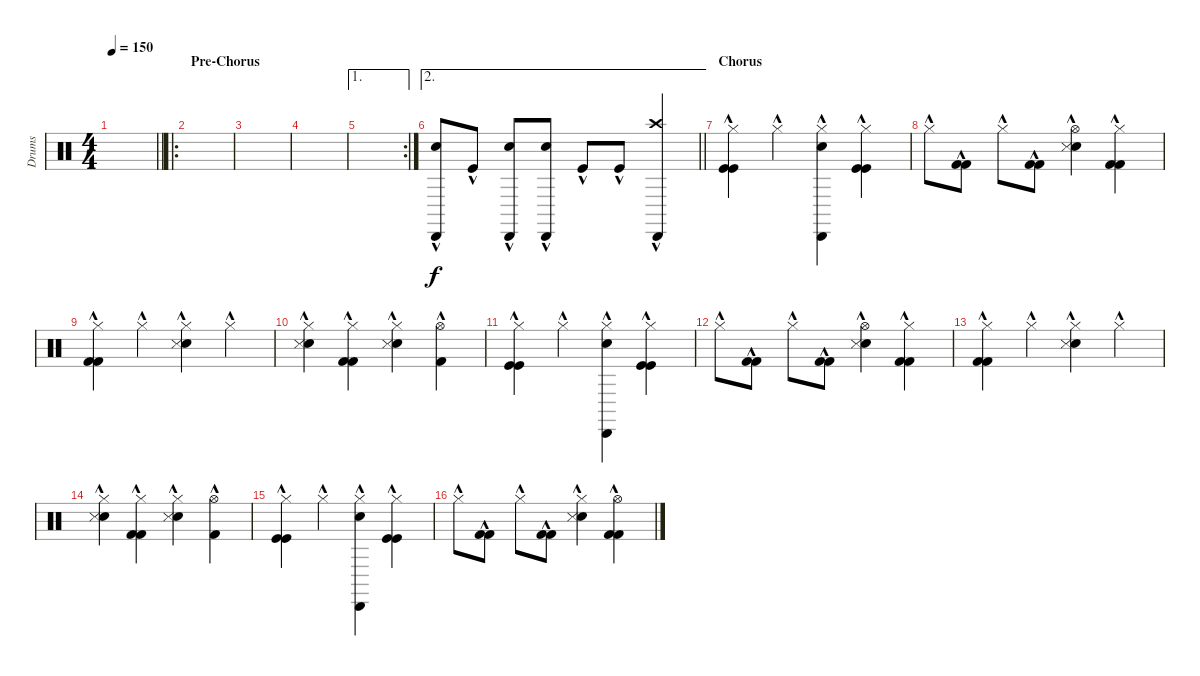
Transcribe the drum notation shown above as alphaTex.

\track ("Drums" "Drums") {instrument percussion}
\staff {score}
\articulation defaults
\ts (4 4)
\tempo 150
\clef neutral
\barLineRight lightlight
\ks c
|
\ro
\section ("" "Pre-Chorus")
|
|
|
\ae 1
\rc 2
|
\ae 2
\barLineRight lightlight
("Electric Snare (hit)"{hac} "Cabasa (hit)"{hac}).8 "Kick (hit)"{hac}.8 ("Electric Snare (hit)"{hac} "Cabasa (hit)"{hac}).8 ("Electric Snare (hit)"{hac} "Cabasa (hit)"{hac}).8 "Kick (hit)"{hac}.8 "Kick (hit)"{hac}.8 ("Cabasa (hit)"{hac} "Crash high (hit)"{hac}).4 |
\section ("" "Chorus")
("Hi-Hat (closed)"{hac} "Kick (hit)"{hac} "Kick (hit)"{hac}).4 "Hi-Hat (closed)"{hac}.4 ("Hi-Hat (closed)"{hac} "Cabasa (hit)"{hac} "Electric Snare (hit)"{hac}).4 ("Hi-Hat (closed)"{hac} "Kick (hit)"{hac} "Kick (hit)"{hac}).4 |
"Hi-Hat (closed)"{hac}.8 ("Kick (hit) 2"{hac} "Kick (hit) 2"{hac}).8 "Hi-Hat (closed)"{hac}.8 ("Kick (hit) 2"{hac} "Kick (hit) 2"{hac}).8 ("Hi-Hat (open)"{hac} "Electric Snare (hit)"{hac} "Snare (side stick) 3"{hac}).4 ("Hi-Hat (closed)" "Kick (hit) 2"{hac} "Kick (hit) 2"{hac}).4 |
("Hi-Hat (closed)"{hac} "Kick (hit) 2"{hac} "Kick (hit) 2"{hac}).4 "Hi-Hat (closed)"{hac}.4 ("Hi-Hat (closed)"{hac} "Electric Snare (hit)"{hac} "Snare (side stick) 3"{hac}).4 "Hi-Hat (closed)"{hac}.4 |
("Hi-Hat (closed)"{hac} "Electric Snare (hit)"{hac} "Snare (side stick) 3"{hac}).4 ("Hi-Hat (closed)"{hac} "Kick (hit) 2"{hac} "Kick (hit) 2"{hac}).4 ("Hi-Hat (closed)"{hac} "Electric Snare (hit)"{hac} "Snare (side stick) 3"{hac}).4 ("Hi-Hat (open)"{hac} "Kick (hit) 2"{hac}).4 |
("Hi-Hat (closed)"{hac} "Kick (hit)"{hac} "Kick (hit)"{hac}).4 "Hi-Hat (closed)"{hac}.4 ("Hi-Hat (closed)"{hac} "Cabasa (hit)"{hac} "Electric Snare (hit)"{hac}).4 ("Hi-Hat (closed)"{hac} "Kick (hit)"{hac} "Kick (hit)"{hac}).4 |
"Hi-Hat (closed)"{hac}.8 ("Kick (hit) 2"{hac} "Kick (hit) 2"{hac}).8 "Hi-Hat (closed)"{hac}.8 ("Kick (hit) 2"{hac} "Kick (hit) 2"{hac}).8 ("Hi-Hat (open)"{hac} "Electric Snare (hit)"{hac} "Snare (side stick) 3"{hac}).4 ("Hi-Hat (closed)" "Kick (hit) 2"{hac} "Kick (hit) 2"{hac}).4 |
("Hi-Hat (closed)"{hac} "Kick (hit) 2"{hac} "Kick (hit) 2"{hac}).4 "Hi-Hat (closed)"{hac}.4 ("Hi-Hat (closed)"{hac} "Electric Snare (hit)"{hac} "Snare (side stick) 3"{hac}).4 "Hi-Hat (closed)"{hac}.4 |
("Hi-Hat (closed)"{hac} "Electric Snare (hit)"{hac} "Snare (side stick) 3"{hac}).4 ("Hi-Hat (closed)"{hac} "Kick (hit) 2"{hac} "Kick (hit) 2"{hac}).4 ("Hi-Hat (closed)"{hac} "Electric Snare (hit)"{hac} "Snare (side stick) 3"{hac}).4 ("Hi-Hat (open)"{hac} "Kick (hit) 2"{hac}).4 |
("Hi-Hat (closed)"{hac} "Kick (hit)"{hac} "Kick (hit)"{hac}).4 "Hi-Hat (closed)"{hac}.4 ("Hi-Hat (closed)"{hac} "Cabasa (hit)"{hac} "Electric Snare (hit)"{hac}).4 ("Hi-Hat (closed)"{hac} "Kick (hit)"{hac} "Kick (hit)"{hac}).4 |
"Hi-Hat (closed)"{hac}.8 ("Kick (hit) 2"{hac} "Kick (hit) 2"{hac}).8 "Hi-Hat (closed)"{hac}.8 ("Kick (hit) 2"{hac} "Kick (hit) 2"{hac}).8 ("Hi-Hat (closed)" "Electric Snare (hit)"{hac} "Snare (side stick) 3"{hac}).4 ("Hi-Hat (open)"{hac} "Kick (hit) 2"{hac} "Kick (hit) 2"{hac}).4
